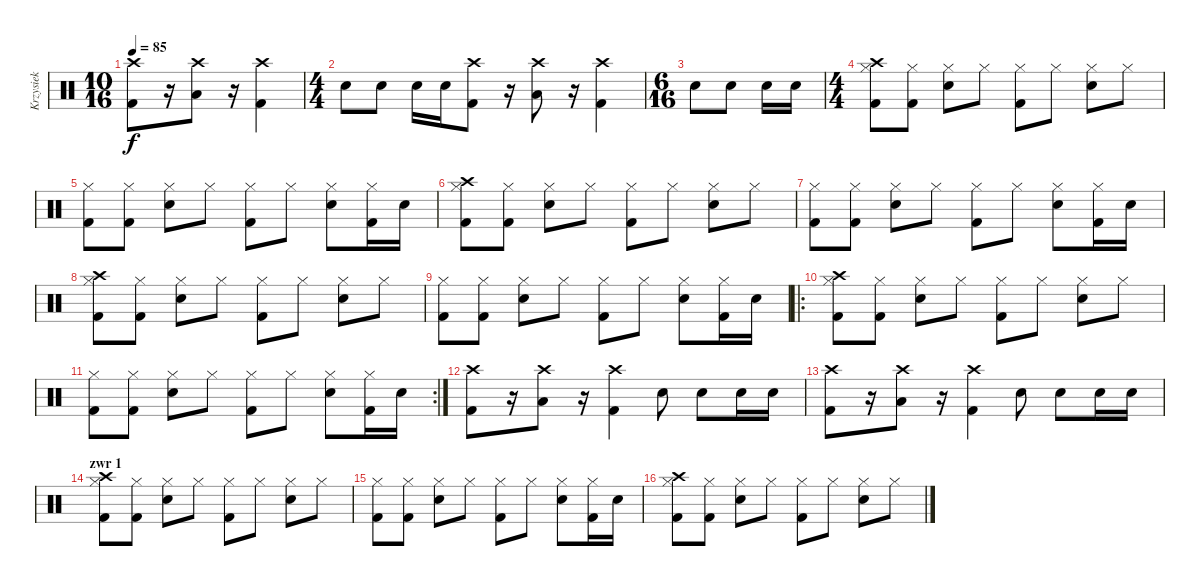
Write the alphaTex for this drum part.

\track ("Krzysiek" "Krzysiek") {instrument percussion}
\staff {score}
\articulation defaults
\ts (10 16)
\tempo 85
\clef neutral
\ks c
("Crash high (hit)" "Kick (hit) 2").8{dy f} r.16 ("Crash high (hit)" "Low Tom (hit)").8 r.16 ("Crash high (hit)" "Kick (hit) 2").4 |
\ts (4 4)
"Electric Snare (hit)".8 "Electric Snare (hit)".8 "Electric Snare (hit)".16 "Electric Snare (hit)".16 ("Crash high (hit)" "Kick (hit) 2").8 r.16 ("Crash high (hit)" "Low Tom (hit)").8 r.16 ("Crash high (hit)" "Kick (hit) 2").4 |
\ts (6 16)
"Electric Snare (hit)".8 "Electric Snare (hit)".8 "Electric Snare (hit)".16 "Electric Snare (hit)".16 |
\ts (4 4)
("Hi-Hat (closed)" "Kick (hit) 2" "Crash high (hit)").8 ("Hi-Hat (closed)" "Kick (hit) 2").8 ("Hi-Hat (closed)" "Electric Snare (hit)").8 "Hi-Hat (closed)".8 ("Hi-Hat (closed)" "Kick (hit) 2").8 "Hi-Hat (closed)".8 ("Hi-Hat (closed)" "Electric Snare (hit)").8 "Hi-Hat (closed)".8 |
("Hi-Hat (closed)" "Kick (hit) 2").8 ("Hi-Hat (closed)" "Kick (hit) 2").8 ("Hi-Hat (closed)" "Electric Snare (hit)").8 "Hi-Hat (closed)".8 ("Hi-Hat (closed)" "Kick (hit) 2").8 "Hi-Hat (closed)".8 ("Hi-Hat (closed)" "Electric Snare (hit)").8 ("Hi-Hat (closed)" "Kick (hit) 2").16 "Electric Snare (hit)".16 |
("Hi-Hat (closed)" "Kick (hit) 2" "Crash high (hit)").8 ("Hi-Hat (closed)" "Kick (hit) 2").8 ("Hi-Hat (closed)" "Electric Snare (hit)").8 "Hi-Hat (closed)".8 ("Hi-Hat (closed)" "Kick (hit) 2").8 "Hi-Hat (closed)".8 ("Hi-Hat (closed)" "Electric Snare (hit)").8 "Hi-Hat (closed)".8 |
("Hi-Hat (closed)" "Kick (hit) 2").8 ("Hi-Hat (closed)" "Kick (hit) 2").8 ("Hi-Hat (closed)" "Electric Snare (hit)").8 "Hi-Hat (closed)".8 ("Hi-Hat (closed)" "Kick (hit) 2").8 "Hi-Hat (closed)".8 ("Hi-Hat (closed)" "Electric Snare (hit)").8 ("Hi-Hat (closed)" "Kick (hit) 2").16 "Electric Snare (hit)".16 |
("Hi-Hat (closed)" "Kick (hit) 2" "Crash high (hit)").8 ("Hi-Hat (closed)" "Kick (hit) 2").8 ("Hi-Hat (closed)" "Electric Snare (hit)").8 "Hi-Hat (closed)".8 ("Hi-Hat (closed)" "Kick (hit) 2").8 "Hi-Hat (closed)".8 ("Hi-Hat (closed)" "Electric Snare (hit)").8 "Hi-Hat (closed)".8 |
("Hi-Hat (closed)" "Kick (hit) 2").8 ("Hi-Hat (closed)" "Kick (hit) 2").8 ("Hi-Hat (closed)" "Electric Snare (hit)").8 "Hi-Hat (closed)".8 ("Hi-Hat (closed)" "Kick (hit) 2").8 "Hi-Hat (closed)".8 ("Hi-Hat (closed)" "Electric Snare (hit)").8 ("Hi-Hat (closed)" "Kick (hit) 2").16 "Electric Snare (hit)".16 |
\ro
("Hi-Hat (closed)" "Kick (hit) 2" "Crash high (hit)").8 ("Hi-Hat (closed)" "Kick (hit) 2").8 ("Hi-Hat (closed)" "Electric Snare (hit)").8 "Hi-Hat (closed)".8 ("Hi-Hat (closed)" "Kick (hit) 2").8 "Hi-Hat (closed)".8 ("Hi-Hat (closed)" "Electric Snare (hit)").8 "Hi-Hat (closed)".8 |
\rc 2
("Hi-Hat (closed)" "Kick (hit) 2").8 ("Hi-Hat (closed)" "Kick (hit) 2").8 ("Hi-Hat (closed)" "Electric Snare (hit)").8 "Hi-Hat (closed)".8 ("Hi-Hat (closed)" "Kick (hit) 2").8 "Hi-Hat (closed)".8 ("Hi-Hat (closed)" "Electric Snare (hit)").8 ("Hi-Hat (closed)" "Kick (hit) 2").16 "Electric Snare (hit)".16 |
("Crash high (hit)" "Kick (hit) 2").8 r.16 ("Crash high (hit)" "Low Tom (hit)").8 r.16 ("Crash high (hit)" "Kick (hit) 2").4 "Electric Snare (hit)".8 "Electric Snare (hit)".8 "Electric Snare (hit)".16 "Electric Snare (hit)".16 |
("Crash high (hit)" "Kick (hit) 2").8 r.16 ("Crash high (hit)" "Low Tom (hit)").8 r.16 ("Crash high (hit)" "Kick (hit) 2").4 "Electric Snare (hit)".8 "Electric Snare (hit)".8 "Electric Snare (hit)".16 "Electric Snare (hit)".16 |
\section ("" "zwr 1")
("Hi-Hat (closed)" "Kick (hit) 2" "Crash high (hit)").8 ("Hi-Hat (closed)" "Kick (hit) 2").8 ("Hi-Hat (closed)" "Electric Snare (hit)").8 "Hi-Hat (closed)".8 ("Hi-Hat (closed)" "Kick (hit) 2").8 "Hi-Hat (closed)".8 ("Hi-Hat (closed)" "Electric Snare (hit)").8 "Hi-Hat (closed)".8 |
("Hi-Hat (closed)" "Kick (hit) 2").8 ("Hi-Hat (closed)" "Kick (hit) 2").8 ("Hi-Hat (closed)" "Electric Snare (hit)").8 "Hi-Hat (closed)".8 ("Hi-Hat (closed)" "Kick (hit) 2").8 "Hi-Hat (closed)".8 ("Hi-Hat (closed)" "Electric Snare (hit)").8 ("Hi-Hat (closed)" "Kick (hit) 2").16 "Electric Snare (hit)".16 |
("Hi-Hat (closed)" "Kick (hit) 2" "Crash high (hit)").8 ("Hi-Hat (closed)" "Kick (hit) 2").8 ("Hi-Hat (closed)" "Electric Snare (hit)").8 "Hi-Hat (closed)".8 ("Hi-Hat (closed)" "Kick (hit) 2").8 "Hi-Hat (closed)".8 ("Hi-Hat (closed)" "Electric Snare (hit)").8 "Hi-Hat (closed)".8
